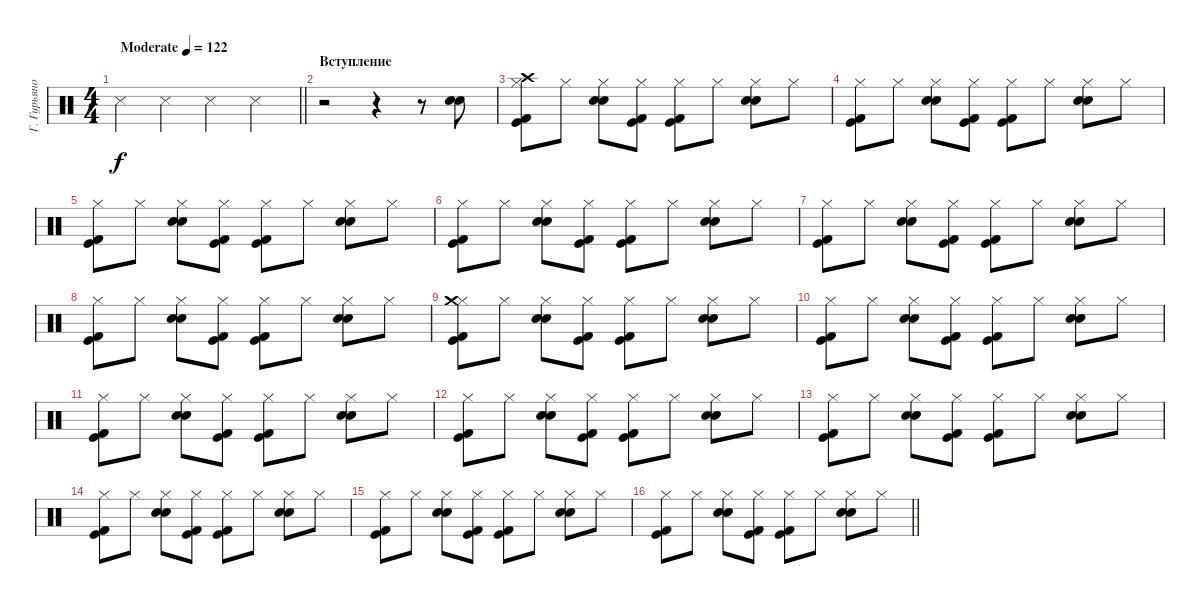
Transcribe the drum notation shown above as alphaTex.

\track ("Г. Гурьянов" "Г. Гурьяно") {instrument percussion}
\staff
\articulation defaults
\ts (4 4)
\tempo (122 "Moderate")
\clef neutral
\barLineRight lightlight
\ks c "Metronome (hit)".4{dy f} "Metronome (hit)".4 "Metronome (hit)".4 "Metronome (hit)".4
|
\section ("" "Вступление")
r.2 r.4 r.8 ("Electric Snare (hit)" "Snare (hit) 2").8 |
("Hi-Hat (closed)" "Crash high (hit)" "Kick (hit)" "Kick (hit) 2").8 "Hi-Hat (closed)".8 ("Hi-Hat (closed)" "Electric Snare (hit)" "Snare (hit) 2").8 ("Hi-Hat (closed)" "Kick (hit)" "Kick (hit) 2").8 ("Hi-Hat (closed)" "Kick (hit)" "Kick (hit) 2").8 "Hi-Hat (closed)".8 ("Hi-Hat (closed)" "Electric Snare (hit)" "Snare (hit) 2").8 "Hi-Hat (closed)".8 |
("Hi-Hat (closed)" "Kick (hit)" "Kick (hit) 2").8 "Hi-Hat (closed)".8 ("Hi-Hat (closed)" "Electric Snare (hit)" "Snare (hit) 2").8 ("Hi-Hat (closed)" "Kick (hit)" "Kick (hit) 2").8 ("Hi-Hat (closed)" "Kick (hit)" "Kick (hit) 2").8 "Hi-Hat (closed)".8 ("Hi-Hat (closed)" "Electric Snare (hit)" "Snare (hit) 2").8 "Hi-Hat (closed)".8 |
("Hi-Hat (closed)" "Kick (hit)" "Kick (hit) 2").8 "Hi-Hat (closed)".8 ("Hi-Hat (closed)" "Electric Snare (hit)" "Snare (hit) 2").8 ("Hi-Hat (closed)" "Kick (hit)" "Kick (hit) 2").8 ("Hi-Hat (closed)" "Kick (hit)" "Kick (hit) 2").8 "Hi-Hat (closed)".8 ("Hi-Hat (closed)" "Electric Snare (hit)" "Snare (hit) 2").8 "Hi-Hat (closed)".8 |
("Hi-Hat (closed)" "Kick (hit)" "Kick (hit) 2").8 "Hi-Hat (closed)".8 ("Hi-Hat (closed)" "Electric Snare (hit)" "Snare (hit) 2").8 ("Hi-Hat (closed)" "Kick (hit)" "Kick (hit) 2").8 ("Hi-Hat (closed)" "Kick (hit)" "Kick (hit) 2").8 "Hi-Hat (closed)".8 ("Hi-Hat (closed)" "Electric Snare (hit)" "Snare (hit) 2").8 "Hi-Hat (closed)".8 |
("Hi-Hat (closed)" "Kick (hit)" "Kick (hit) 2").8 "Hi-Hat (closed)".8 ("Hi-Hat (closed)" "Electric Snare (hit)" "Snare (hit) 2").8 ("Hi-Hat (closed)" "Kick (hit)" "Kick (hit) 2").8 ("Hi-Hat (closed)" "Kick (hit)" "Kick (hit) 2").8 "Hi-Hat (closed)".8 ("Hi-Hat (closed)" "Electric Snare (hit)" "Snare (hit) 2").8 "Hi-Hat (closed)".8 |
("Hi-Hat (closed)" "Kick (hit)" "Kick (hit) 2").8 "Hi-Hat (closed)".8 ("Hi-Hat (closed)" "Electric Snare (hit)" "Snare (hit) 2").8 ("Hi-Hat (closed)" "Kick (hit)" "Kick (hit) 2").8 ("Hi-Hat (closed)" "Kick (hit)" "Kick (hit) 2").8 "Hi-Hat (closed)".8 ("Hi-Hat (closed)" "Electric Snare (hit)" "Snare (hit) 2").8 "Hi-Hat (closed)".8 |
("Hi-Hat (closed)" "Crash medium (hit)" "Kick (hit)" "Kick (hit) 2").8 "Hi-Hat (closed)".8 ("Hi-Hat (closed)" "Electric Snare (hit)" "Snare (hit) 2").8 ("Hi-Hat (closed)" "Kick (hit)" "Kick (hit) 2").8 ("Hi-Hat (closed)" "Kick (hit)" "Kick (hit) 2").8 "Hi-Hat (closed)".8 ("Hi-Hat (closed)" "Electric Snare (hit)" "Snare (hit) 2").8 "Hi-Hat (closed)".8 |
("Hi-Hat (closed)" "Kick (hit)" "Kick (hit) 2").8 "Hi-Hat (closed)".8 ("Hi-Hat (closed)" "Electric Snare (hit)" "Snare (hit) 2").8 ("Hi-Hat (closed)" "Kick (hit)" "Kick (hit) 2").8 ("Hi-Hat (closed)" "Kick (hit)" "Kick (hit) 2").8 "Hi-Hat (closed)".8 ("Hi-Hat (closed)" "Electric Snare (hit)" "Snare (hit) 2").8 "Hi-Hat (closed)".8 |
("Hi-Hat (closed)" "Kick (hit)" "Kick (hit) 2").8 "Hi-Hat (closed)".8 ("Hi-Hat (closed)" "Electric Snare (hit)" "Snare (hit) 2").8 ("Hi-Hat (closed)" "Kick (hit)" "Kick (hit) 2").8 ("Hi-Hat (closed)" "Kick (hit)" "Kick (hit) 2").8 "Hi-Hat (closed)".8 ("Hi-Hat (closed)" "Electric Snare (hit)" "Snare (hit) 2").8 "Hi-Hat (closed)".8 |
("Hi-Hat (closed)" "Kick (hit)" "Kick (hit) 2").8 "Hi-Hat (closed)".8 ("Hi-Hat (closed)" "Electric Snare (hit)" "Snare (hit) 2").8 ("Hi-Hat (closed)" "Kick (hit)" "Kick (hit) 2").8 ("Hi-Hat (closed)" "Kick (hit)" "Kick (hit) 2").8 "Hi-Hat (closed)".8 ("Hi-Hat (closed)" "Electric Snare (hit)" "Snare (hit) 2").8 "Hi-Hat (closed)".8 |
("Hi-Hat (closed)" "Kick (hit)" "Kick (hit) 2").8 "Hi-Hat (closed)".8 ("Hi-Hat (closed)" "Electric Snare (hit)" "Snare (hit) 2").8 ("Hi-Hat (closed)" "Kick (hit)" "Kick (hit) 2").8 ("Hi-Hat (closed)" "Kick (hit)" "Kick (hit) 2").8 "Hi-Hat (closed)".8 ("Hi-Hat (closed)" "Electric Snare (hit)" "Snare (hit) 2").8 "Hi-Hat (closed)".8 |
("Hi-Hat (closed)" "Kick (hit)" "Kick (hit) 2").8 "Hi-Hat (closed)".8 ("Hi-Hat (closed)" "Electric Snare (hit)" "Snare (hit) 2").8 ("Hi-Hat (closed)" "Kick (hit)" "Kick (hit) 2").8 ("Hi-Hat (closed)" "Kick (hit)" "Kick (hit) 2").8 "Hi-Hat (closed)".8 ("Hi-Hat (closed)" "Electric Snare (hit)" "Snare (hit) 2").8 "Hi-Hat (closed)".8 |
("Hi-Hat (closed)" "Kick (hit)" "Kick (hit) 2").8 "Hi-Hat (closed)".8 ("Hi-Hat (closed)" "Electric Snare (hit)" "Snare (hit) 2").8 ("Hi-Hat (closed)" "Kick (hit)" "Kick (hit) 2").8 ("Hi-Hat (closed)" "Kick (hit)" "Kick (hit) 2").8 "Hi-Hat (closed)".8 ("Hi-Hat (closed)" "Electric Snare (hit)" "Snare (hit) 2").8 "Hi-Hat (closed)".8 |
\barLineRight lightlight
("Hi-Hat (closed)" "Kick (hit)" "Kick (hit) 2").8 "Hi-Hat (closed)".8 ("Hi-Hat (closed)" "Electric Snare (hit)" "Snare (hit) 2").8 ("Hi-Hat (closed)" "Kick (hit)" "Kick (hit) 2").8 ("Hi-Hat (closed)" "Kick (hit)" "Kick (hit) 2").8 "Hi-Hat (closed)".8 ("Hi-Hat (closed)" "Electric Snare (hit)" "Snare (hit) 2").8 "Hi-Hat (closed)".8
